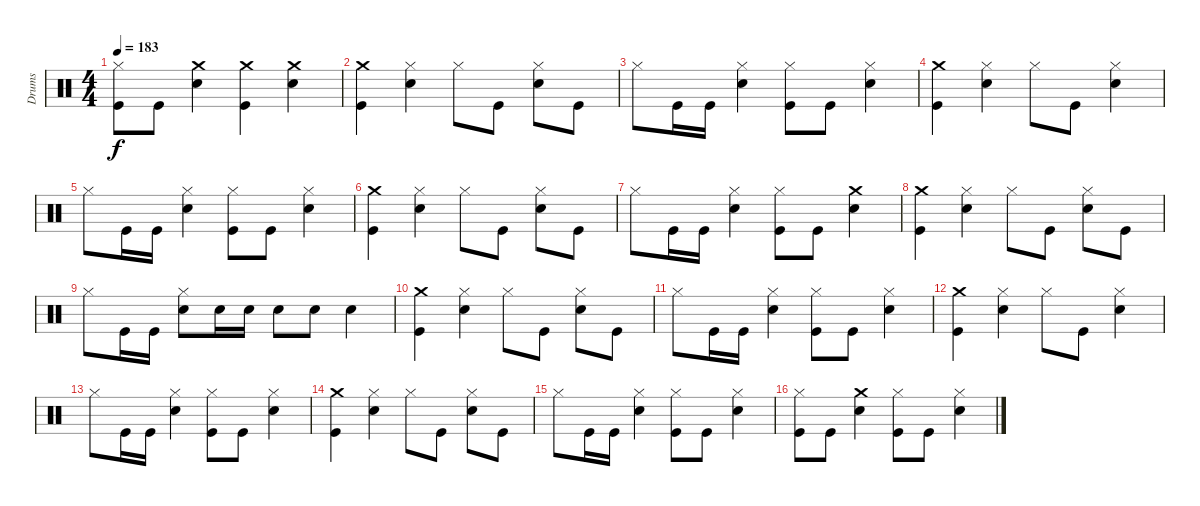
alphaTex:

\track ("Drums" "Drums") {instrument percussion}
\staff {score}
\articulation defaults
\ts (4 4)
\tempo 183
\clef neutral
\ks c
("Kick (hit)" "Hi-Hat (closed)").8{dy f} "Kick (hit)".8 ("Crash medium (hit)" "Snare (hit) 2").4 ("Kick (hit)" "Crash medium (hit)").4 ("Snare (hit) 2" "Crash medium (hit)").4 |
("Kick (hit)" "Crash medium (hit)").4 ("Snare (hit) 2" "Hi-Hat (closed)").4 "Hi-Hat (closed)".8 "Kick (hit)".8 ("Snare (hit) 2" "Hi-Hat (closed)").8 "Kick (hit)".8 |
"Hi-Hat (closed)".8 "Kick (hit)".16 "Kick (hit)".16 ("Snare (hit) 2" "Hi-Hat (closed)").4 ("Kick (hit)" "Hi-Hat (closed)").8 "Kick (hit)".8 ("Snare (hit) 2" "Hi-Hat (closed)").4 |
("Kick (hit)" "Crash medium (hit)").4 ("Hi-Hat (closed)" "Snare (hit) 2").4 "Hi-Hat (closed)".8 "Kick (hit)".8 ("Snare (hit) 2" "Hi-Hat (closed)").4 |
"Hi-Hat (closed)".8 "Kick (hit)".16 "Kick (hit)".16 ("Snare (hit) 2" "Hi-Hat (closed)").4 ("Kick (hit)" "Hi-Hat (closed)").8 "Kick (hit)".8 ("Hi-Hat (closed)" "Snare (hit) 2").4 |
("Kick (hit)" "Crash medium (hit)").4 ("Hi-Hat (closed)" "Snare (hit) 2").4 "Hi-Hat (closed)".8 "Kick (hit)".8 ("Snare (hit) 2" "Hi-Hat (closed)").8 "Kick (hit)".8 |
"Hi-Hat (closed)".8 "Kick (hit)".16 "Kick (hit)".16 ("Snare (hit) 2" "Hi-Hat (closed)").4 ("Kick (hit)" "Hi-Hat (closed)").8 "Kick (hit)".8 ("Crash medium (hit)" "Snare (hit) 2").4 |
("Kick (hit)" "Crash medium (hit)").4 ("Hi-Hat (closed)" "Snare (hit) 2").4 "Hi-Hat (closed)".8 "Kick (hit)".8 ("Snare (hit) 2" "Hi-Hat (closed)").8 "Kick (hit)".8 |
"Hi-Hat (closed)".8 "Kick (hit)".16 "Kick (hit)".16 ("Snare (hit) 2" "Hi-Hat (closed)").8 "Snare (hit) 2".16 "Snare (hit) 2".16 "Snare (hit) 2".8 "Snare (hit) 2".8 "Snare (hit) 2".4 |
("Kick (hit)" "Crash medium (hit)").4 ("Hi-Hat (closed)" "Snare (hit) 2").4 "Hi-Hat (closed)".8 "Kick (hit)".8 ("Snare (hit) 2" "Hi-Hat (closed)").8 "Kick (hit)".8 |
"Hi-Hat (closed)".8 "Kick (hit)".16 "Kick (hit)".16 ("Snare (hit) 2" "Hi-Hat (closed)").4 ("Kick (hit)" "Hi-Hat (closed)").8 "Kick (hit)".8 ("Snare (hit) 2" "Hi-Hat (closed)").4 |
("Kick (hit)" "Crash medium (hit)").4 ("Hi-Hat (closed)" "Snare (hit) 2").4 "Hi-Hat (closed)".8 "Kick (hit)".8 ("Snare (hit) 2" "Hi-Hat (closed)").4 |
"Hi-Hat (closed)".8 "Kick (hit)".16 "Kick (hit)".16 ("Snare (hit) 2" "Hi-Hat (closed)").4 ("Kick (hit)" "Hi-Hat (closed)").8 "Kick (hit)".8 ("Hi-Hat (closed)" "Snare (hit) 2").4 |
("Kick (hit)" "Crash medium (hit)").4 ("Hi-Hat (closed)" "Snare (hit) 2").4 "Hi-Hat (closed)".8 "Kick (hit)".8 ("Snare (hit) 2" "Hi-Hat (closed)").8 "Kick (hit)".8 |
"Hi-Hat (closed)".8 "Kick (hit)".16 "Kick (hit)".16 ("Snare (hit) 2" "Hi-Hat (closed)").4 ("Kick (hit)" "Hi-Hat (closed)").8 "Kick (hit)".8 ("Snare (hit) 2" "Hi-Hat (closed)").4 |
("Kick (hit)" "Hi-Hat (closed)").8 "Kick (hit)".8 ("Snare (hit) 2" "Crash medium (hit)").4 ("Kick (hit)" "Hi-Hat (closed)").8 "Kick (hit)".8 ("Snare (hit) 2" "Hi-Hat (closed)").4
